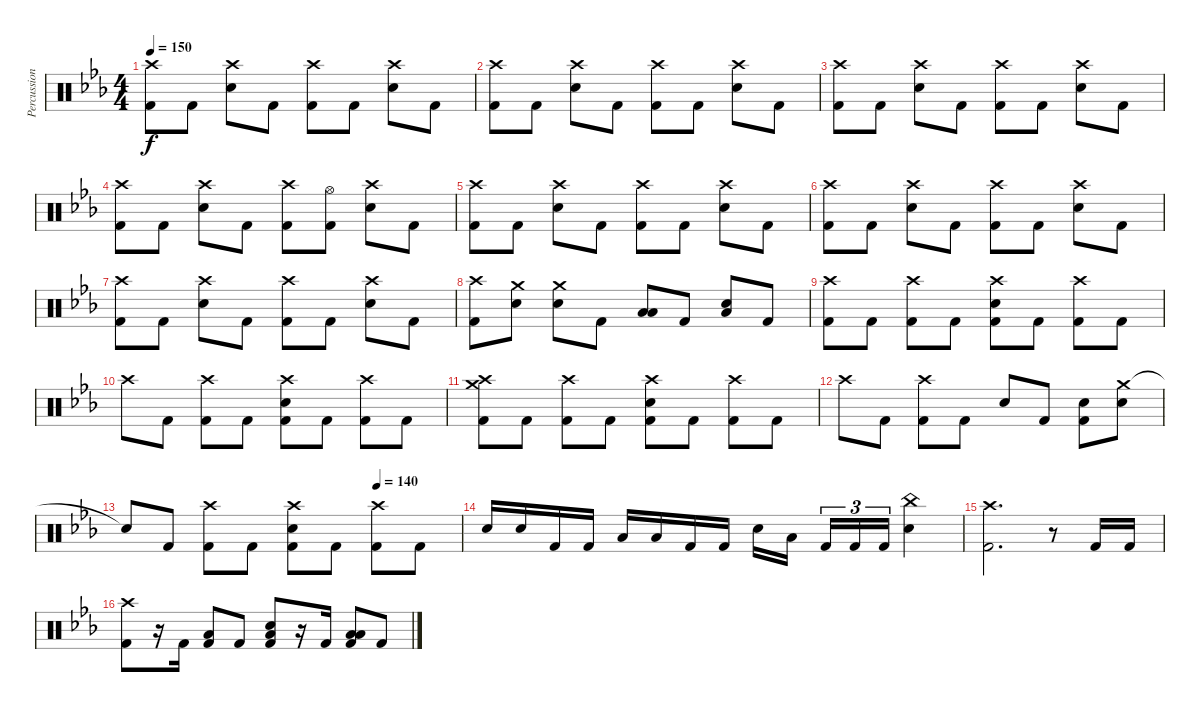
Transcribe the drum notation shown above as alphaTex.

\track ("Percussion" "Percussion") {instrument percussion}
\staff {score}
\articulation defaults
\ts (4 4)
\tempo 150
\clef neutral
\ks cminor
("Crash high (hit)" "Kick (hit) 2").8{dy f} "Kick (hit) 2".8 ("Crash high (hit)" "Electric Snare (hit)").8 "Kick (hit) 2".8 ("Crash high (hit)" "Kick (hit) 2").8 "Kick (hit) 2".8 ("Crash high (hit)" "Electric Snare (hit)").8 "Kick (hit) 2".8 |
("Crash high (hit)" "Kick (hit) 2").8 "Kick (hit) 2".8 ("Crash high (hit)" "Electric Snare (hit)").8 "Kick (hit) 2".8 ("Crash high (hit)" "Kick (hit) 2").8 "Kick (hit) 2".8 ("Crash high (hit)" "Electric Snare (hit)").8 "Kick (hit) 2".8 |
("Crash high (hit)" "Kick (hit) 2").8 "Kick (hit) 2".8 ("Crash high (hit)" "Electric Snare (hit)").8 "Kick (hit) 2".8 ("Crash high (hit)" "Kick (hit) 2").8 "Kick (hit) 2".8 ("Crash high (hit)" "Electric Snare (hit)").8 "Kick (hit) 2".8 |
("Crash high (hit)" "Kick (hit) 2").8 "Kick (hit) 2".8 ("Crash high (hit)" "Electric Snare (hit)").8 "Kick (hit) 2".8 ("Crash high (hit)" "Kick (hit) 2").8 ("Hi-Hat (open)" "Kick (hit) 2").8 ("Crash high (hit)" "Electric Snare (hit)").8 "Kick (hit) 2".8 |
("Crash high (hit)" "Kick (hit) 2").8 "Kick (hit) 2".8 ("Crash high (hit)" "Electric Snare (hit)").8 "Kick (hit) 2".8 ("Crash high (hit)" "Kick (hit) 2").8 "Kick (hit) 2".8 ("Crash high (hit)" "Electric Snare (hit)").8 "Kick (hit) 2".8 |
("Crash high (hit)" "Kick (hit) 2").8 "Kick (hit) 2".8 ("Crash high (hit)" "Electric Snare (hit)").8 "Kick (hit) 2".8 ("Crash high (hit)" "Kick (hit) 2").8 "Kick (hit) 2".8 ("Crash high (hit)" "Electric Snare (hit)").8 "Kick (hit) 2".8 |
("Crash high (hit)" "Kick (hit) 2").8 "Kick (hit) 2".8 ("Crash high (hit)" "Electric Snare (hit)").8 "Kick (hit) 2".8 ("Crash high (hit)" "Kick (hit) 2").8 "Kick (hit) 2".8 ("Crash high (hit)" "Electric Snare (hit)").8 "Kick (hit) 2".8 |
("Crash high (hit)" "Kick (hit) 2").8 ("Crash medium (hit)" "Electric Snare (hit)").8 ("Crash medium (hit)" "Electric Snare (hit)").8 "Kick (hit) 2".8 ("Low Tom (hit)" "Low Floor Tom (hit)").8 "Kick (hit) 2".8 ("Low Floor Tom (hit)" "Electric Snare (hit)").8 "Kick (hit) 2".8 |
("Crash high (hit)" "Kick (hit) 2").8 "Kick (hit) 2".8 ("Crash high (hit)" "Kick (hit) 2").8 "Kick (hit) 2".8 ("Crash high (hit)" "Electric Snare (hit)" "Kick (hit) 2").8 "Kick (hit) 2".8 ("Crash high (hit)" "Kick (hit) 2").8 "Kick (hit) 2".8 |
"Crash high (hit)".8 "Kick (hit) 2".8 ("Crash high (hit)" "Kick (hit) 2").8 "Kick (hit) 2".8 ("Crash high (hit)" "Electric Snare (hit)" "Kick (hit) 2").8 "Kick (hit) 2".8 ("Crash high (hit)" "Kick (hit) 2").8 "Kick (hit) 2".8 |
("Crash high (hit)" "Crash medium (hit)" "Kick (hit) 2").8 "Kick (hit) 2".8 ("Crash high (hit)" "Kick (hit) 2").8 "Kick (hit) 2".8 ("Crash high (hit)" "Electric Snare (hit)" "Kick (hit) 2").8 "Kick (hit) 2".8 ("Crash high (hit)" "Kick (hit) 2").8 "Kick (hit) 2".8 |
"Crash high (hit)".8 "Kick (hit) 2".8 ("Crash high (hit)" "Kick (hit) 2").8 "Kick (hit) 2".8 "Electric Snare (hit)".8 "Kick (hit) 2".8 ("Electric Snare (hit)" "Kick (hit) 2").8 ("Crash medium (hit)" "Electric Snare (hit)").8 |
\tempo (140 0.75)
"Snare (hit)"{t}.8 "Kick (hit) 2".8 ("Crash high (hit)" "Kick (hit) 2").8 "Kick (hit) 2".8 ("Crash high (hit)" "Electric Snare (hit)" "Kick (hit) 2").8 "Kick (hit) 2".8 ("Crash high (hit)" "Kick (hit) 2").8 "Kick (hit) 2".8 |
"Electric Snare (hit)".16 "Electric Snare (hit)".16 "Kick (hit) 2".16 "Kick (hit) 2".16 "Low Tom (hit)".16 "Low Tom (hit)".16 "Kick (hit) 2".16 "Kick (hit) 2".16 "Electric Snare (hit)".16 "Low Tom (hit)".16{beam splitsecondary} "Kick (hit) 2".16{tu (3 2)} "Kick (hit) 2".16{tu (3 2)} "Kick (hit) 2".16{tu (3 2)} ("China (hit)" "Electric Snare (hit)").4 |
("Crash high (hit)" "Kick (hit) 2").2{d} r.8 "Kick (hit) 2".16 "Kick (hit) 2".16 |
("Crash high (hit)" "Kick (hit) 2").8 r.16 "Kick (hit) 2".16 ("Low Floor Tom (hit)" "Kick (hit) 2").8 "Kick (hit) 2".8 ("Low Floor Tom (hit)" "Electric Snare (hit)" "Kick (hit) 2").8 r.16 "Kick (hit) 2".16 ("Low Tom (hit)" "Low Floor Tom (hit)" "Kick (hit) 2").8 "Kick (hit) 2".8
